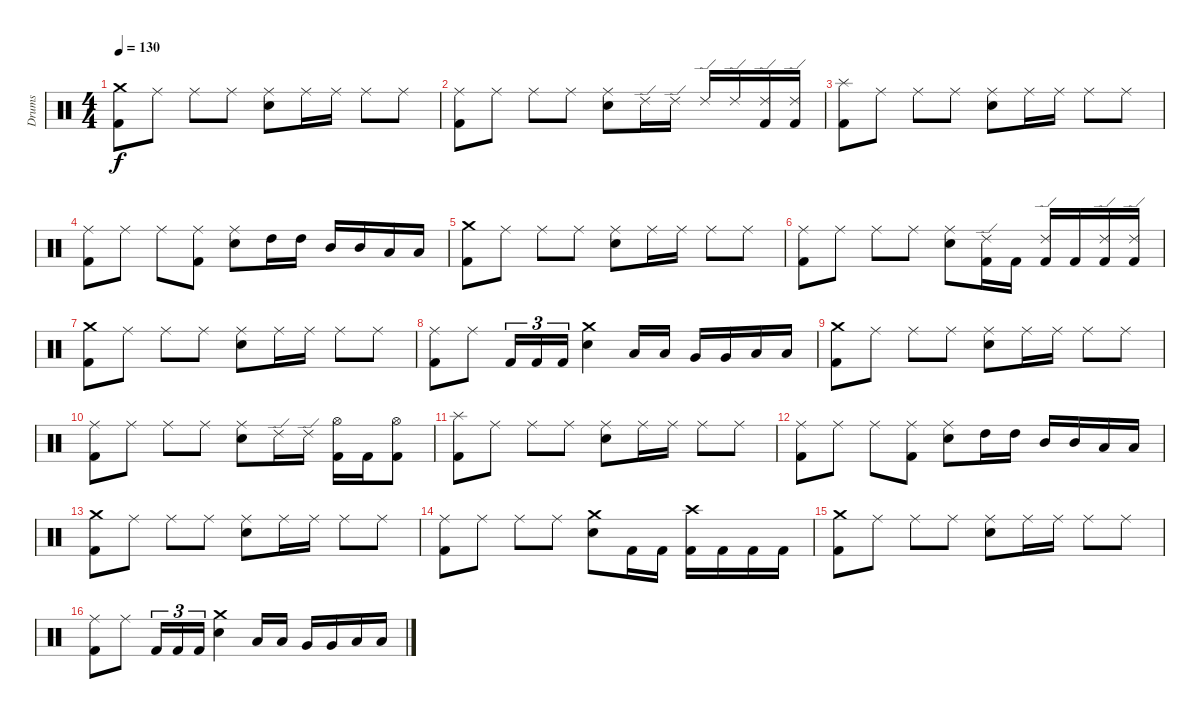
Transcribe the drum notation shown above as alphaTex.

\track ("Drums" "Drums") {instrument percussion}
\staff {score}
\articulation defaults
\ts (4 4)
\tempo 130
\clef neutral
\ks c
("Kick (hit) 2" "Crash medium (hit)").8{dy f} "Ride (middle)".8 "Ride (middle)".8 "Ride (middle)".8 ("Electric Snare (hit)" "Ride (middle)").8 "Ride (middle)".16 "Ride (middle)".16 "Ride (middle)".8 "Ride (middle)".8 |
("Kick (hit) 2" "Ride (middle)").8 "Ride (middle)".8 "Ride (middle)".8 "Ride (middle)".8 ("Electric Snare (hit)" "Ride (middle)").8 "Ride (edge) 2".16 "Ride (edge) 2".16 "Ride (edge) 2".16 "Ride (edge) 2".16 ("Kick (hit) 2" "Ride (edge) 2").16 ("Kick (hit) 2" "Ride (edge) 2").16 |
("Kick (hit) 2" "Splash (hit)").8 "Ride (middle)".8 "Ride (middle)".8 "Ride (middle)".8 ("Electric Snare (hit)" "Ride (middle)").8 "Ride (middle)".16 "Ride (middle)".16 "Ride (middle)".8 "Ride (middle)".8 |
("Kick (hit) 2" "Ride (middle)").8 "Ride (middle)".8 "Ride (middle)".8 ("Kick (hit) 2" "Ride (middle)").8 ("Electric Snare (hit)" "Ride (middle)").8 "High Tom (hit)".16 "High Tom (hit)".16 "Mid Tom (hit)".16 "Mid Tom (hit)".16 "Low Tom (hit)".16 "Low Tom (hit)".16 |
("Kick (hit) 2" "Crash medium (hit)").8 "Ride (middle)".8 "Ride (middle)".8 "Ride (middle)".8 ("Electric Snare (hit)" "Ride (middle)").8 "Ride (middle)".16 "Ride (middle)".16 "Ride (middle)".8 "Ride (middle)".8 |
("Kick (hit) 2" "Ride (middle)").8 "Ride (middle)".8 "Ride (middle)".8 "Ride (middle)".8 ("Electric Snare (hit)" "Ride (middle)").8 ("Kick (hit) 2" "Ride (edge) 2").16 "Kick (hit) 2".16 ("Kick (hit) 2" "Ride (edge) 2").16 "Kick (hit) 2".16 ("Kick (hit) 2" "Ride (edge) 2").16 ("Kick (hit) 2" "Ride (edge) 2").16 |
("Kick (hit) 2" "Crash medium (hit)").8 "Ride (middle)".8 "Ride (middle)".8 "Ride (middle)".8 ("Electric Snare (hit)" "Ride (middle)").8 "Ride (middle)".16 "Ride (middle)".16 "Ride (middle)".8 "Ride (middle)".8 |
("Kick (hit) 2" "Ride (middle)").8 "Ride (middle)".8 "Kick (hit) 2".16{tu (3 2)} "Kick (hit) 2".16{tu (3 2)} "Kick (hit) 2".16{tu (3 2)} ("Electric Snare (hit)" "Crash medium (hit)").4 "Low Tom (hit)".16 "Low Tom (hit)".16 "Very Low Tom (hit)".16 "Very Low Tom (hit)".16 "Low Floor Tom (hit)".16 "Low Floor Tom (hit)".16 |
("Kick (hit) 2" "Crash medium (hit)").8 "Ride (middle)".8 "Ride (middle)".8 "Ride (middle)".8 ("Electric Snare (hit)" "Ride (middle)").8 "Ride (middle)".16 "Ride (middle)".16 "Ride (middle)".8 "Ride (middle)".8 |
("Kick (hit) 2" "Ride (middle)").8 "Ride (middle)".8 "Ride (middle)".8 "Ride (middle)".8 ("Electric Snare (hit)" "Ride (middle)").8 "Ride (edge) 2".16 "Ride (edge) 2".16 ("Kick (hit) 2" "Hi-Hat (open)").16 "Kick (hit) 2".16 ("Kick (hit) 2" "Hi-Hat (open)").8 |
("Kick (hit) 2" "Splash (hit)").8 "Ride (middle)".8 "Ride (middle)".8 "Ride (middle)".8 ("Electric Snare (hit)" "Ride (middle)").8 "Ride (middle)".16 "Ride (middle)".16 "Ride (middle)".8 "Ride (middle)".8 |
("Kick (hit) 2" "Ride (middle)").8 "Ride (middle)".8 "Ride (middle)".8 ("Kick (hit) 2" "Ride (middle)").8 ("Electric Snare (hit)" "Ride (middle)").8 "High Tom (hit)".16 "High Tom (hit)".16 "Mid Tom (hit)".16 "Mid Tom (hit)".16 "Low Tom (hit)".16 "Low Tom (hit)".16 |
("Kick (hit) 2" "Crash medium (hit)").8 "Ride (middle)".8 "Ride (middle)".8 "Ride (middle)".8 ("Electric Snare (hit)" "Ride (middle)").8 "Ride (middle)".16 "Ride (middle)".16 "Ride (middle)".8 "Ride (middle)".8 |
("Kick (hit) 2" "Ride (middle)").8 "Ride (middle)".8 "Ride (middle)".8 "Ride (middle)".8 ("Electric Snare (hit)" "Crash medium (hit)").8 "Kick (hit) 2".16 "Kick (hit) 2".16 ("Kick (hit) 2" "Crash high (hit)").16 "Kick (hit) 2".16 "Kick (hit) 2".16 "Kick (hit) 2".16 |
("Kick (hit) 2" "Crash medium (hit)").8 "Ride (middle)".8 "Ride (middle)".8 "Ride (middle)".8 ("Electric Snare (hit)" "Ride (middle)").8 "Ride (middle)".16 "Ride (middle)".16 "Ride (middle)".8 "Ride (middle)".8 |
("Kick (hit) 2" "Ride (middle)").8 "Ride (middle)".8 "Kick (hit) 2".16{tu (3 2)} "Kick (hit) 2".16{tu (3 2)} "Kick (hit) 2".16{tu (3 2)} ("Electric Snare (hit)" "Crash medium (hit)").4 "Low Tom (hit)".16 "Low Tom (hit)".16 "Very Low Tom (hit)".16 "Very Low Tom (hit)".16 "Low Floor Tom (hit)".16 "Low Floor Tom (hit)".16
